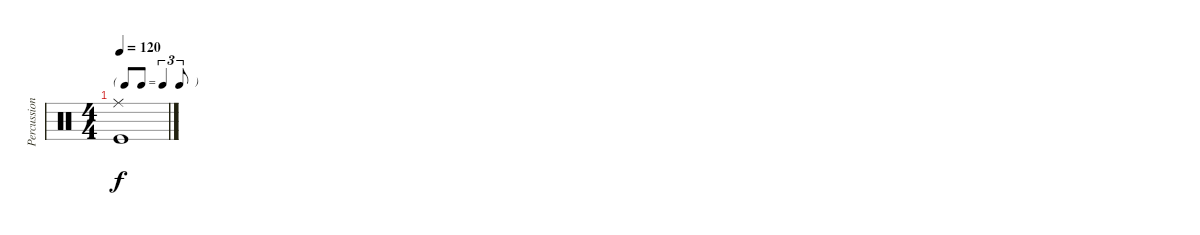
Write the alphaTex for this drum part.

\track ("Percussion" "Percussion") {instrument percussion}
\staff {score}
\articulation defaults
\ts (4 4)
\tf triplet8th
\tempo 120
\clef neutral
\ks c
("Ride (middle)" "Kick (hit)").1{dy f}
